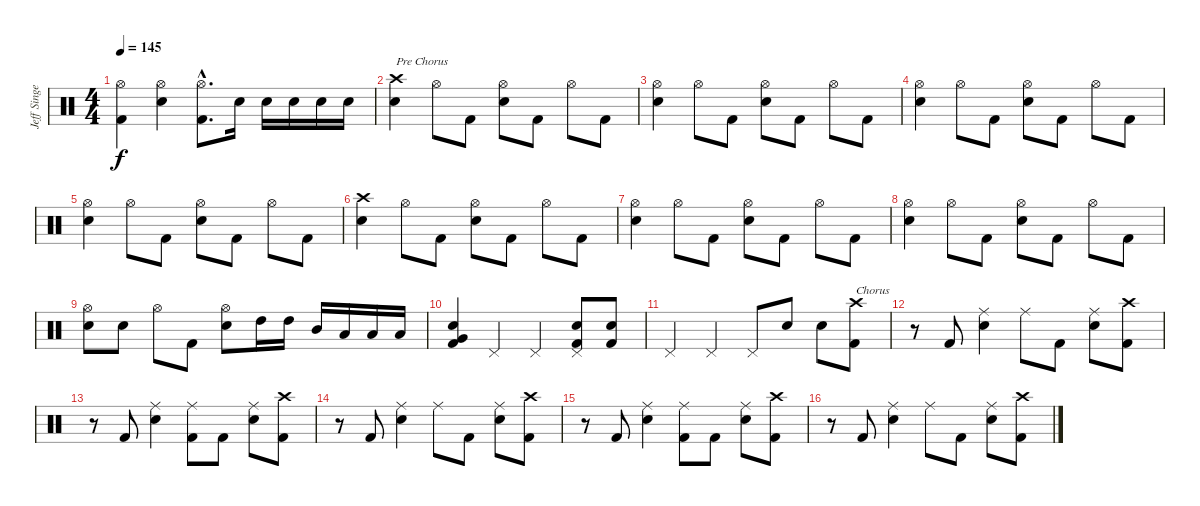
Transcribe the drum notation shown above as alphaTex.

\track ("Jeff Singer" "Jeff Singe") {instrument percussion}
\staff {score}
\articulation defaults
\ts (4 4)
\tempo 145
\clef neutral
\ks c
("Hi-Hat (open)" "Kick (hit) 2").4{dy f} ("Hi-Hat (open)" "Electric Snare (hit)").4 ("Hi-Hat (open)"{hac} "Kick (hit) 2"{hac}).8{d} "Electric Snare (hit)".16 "Electric Snare (hit)".16 "Electric Snare (hit)".16 "Electric Snare (hit)".16 "Electric Snare (hit)".16 |
("Crash high (hit)" "Electric Snare (hit)").4{txt "Pre Chorus"} "Hi-Hat (open)".8 "Kick (hit) 2".8 ("Hi-Hat (open)" "Electric Snare (hit)").8 "Kick (hit) 2".8 "Hi-Hat (open)".8 "Kick (hit) 2".8 |
("Hi-Hat (open)" "Electric Snare (hit)").4 "Hi-Hat (open)".8 "Kick (hit) 2".8 ("Hi-Hat (open)" "Electric Snare (hit)").8 "Kick (hit) 2".8 "Hi-Hat (open)".8 "Kick (hit) 2".8 |
("Hi-Hat (open)" "Electric Snare (hit)").4 "Hi-Hat (open)".8 "Kick (hit) 2".8 ("Hi-Hat (open)" "Electric Snare (hit)").8 "Kick (hit) 2".8 "Hi-Hat (open)".8 "Kick (hit) 2".8 |
("Hi-Hat (open)" "Electric Snare (hit)").4 "Hi-Hat (open)".8 "Kick (hit) 2".8 ("Hi-Hat (open)" "Electric Snare (hit)").8 "Kick (hit) 2".8 "Hi-Hat (open)".8 "Kick (hit) 2".8 |
("Crash high (hit)" "Electric Snare (hit)").4 "Hi-Hat (open)".8 "Kick (hit) 2".8 ("Hi-Hat (open)" "Electric Snare (hit)").8 "Kick (hit) 2".8 "Hi-Hat (open)".8 "Kick (hit) 2".8 |
("Hi-Hat (open)" "Electric Snare (hit)").4 "Hi-Hat (open)".8 "Kick (hit) 2".8 ("Hi-Hat (open)" "Electric Snare (hit)").8 "Kick (hit) 2".8 "Hi-Hat (open)".8 "Kick (hit) 2".8 |
("Hi-Hat (open)" "Electric Snare (hit)").4 "Hi-Hat (open)".8 "Kick (hit) 2".8 ("Hi-Hat (open)" "Electric Snare (hit)").8 "Kick (hit) 2".8 "Hi-Hat (open)".8 "Kick (hit) 2".8 |
("Hi-Hat (open)" "Electric Snare (hit)").8 "Electric Snare (hit)".8 "Hi-Hat (open)".8 "Kick (hit) 2".8 ("Hi-Hat (open)" "Electric Snare (hit)").8 "High Tom (hit)".16 "High Tom (hit)".16 "Mid Tom (hit)".16 "Low Tom (hit)".16 "Low Tom (hit)".16 "Low Tom (hit)".16 |
("Very Low Tom (hit)" "Electric Snare (hit)" "Kick (hit) 2").4 "Pedal Hi-Hat (hit)".4 "Pedal Hi-Hat (hit)".4 ("Pedal Hi-Hat (hit)" "Electric Snare (hit)" "Kick (hit) 2").8 ("Electric Snare (hit)" "Kick (hit) 2").8 |
"Pedal Hi-Hat (hit)".4 "Pedal Hi-Hat (hit)".4 "Pedal Hi-Hat (hit)".8 "Electric Snare (hit)".8 "Electric Snare (hit)".8 ("Crash high (hit)" "Kick (hit) 2").8{txt "Chorus"} |
r.8 "Kick (hit) 2".8 ("Ride (middle)" "Electric Snare (hit)").4 "Ride (middle)".8 "Kick (hit) 2".8 ("Ride (middle)" "Electric Snare (hit)").8 ("Crash high (hit)" "Kick (hit) 2").8 |
r.8 "Kick (hit) 2".8 ("Ride (middle)" "Electric Snare (hit)").4 ("Ride (middle)" "Kick (hit) 2").8 "Kick (hit) 2".8 ("Ride (middle)" "Electric Snare (hit)").8 ("Crash high (hit)" "Kick (hit) 2").8 |
r.8 "Kick (hit) 2".8 ("Ride (middle)" "Electric Snare (hit)").4 "Ride (middle)".8 "Kick (hit) 2".8 ("Ride (middle)" "Electric Snare (hit)").8 ("Crash high (hit)" "Kick (hit) 2").8 |
r.8 "Kick (hit) 2".8 ("Ride (middle)" "Electric Snare (hit)").4 ("Ride (middle)" "Kick (hit) 2").8 "Kick (hit) 2".8 ("Ride (middle)" "Electric Snare (hit)").8 ("Crash high (hit)" "Kick (hit) 2").8 |
r.8 "Kick (hit) 2".8 ("Ride (middle)" "Electric Snare (hit)").4 "Ride (middle)".8 "Kick (hit) 2".8 ("Ride (middle)" "Electric Snare (hit)").8 ("Crash high (hit)" "Kick (hit) 2").8
